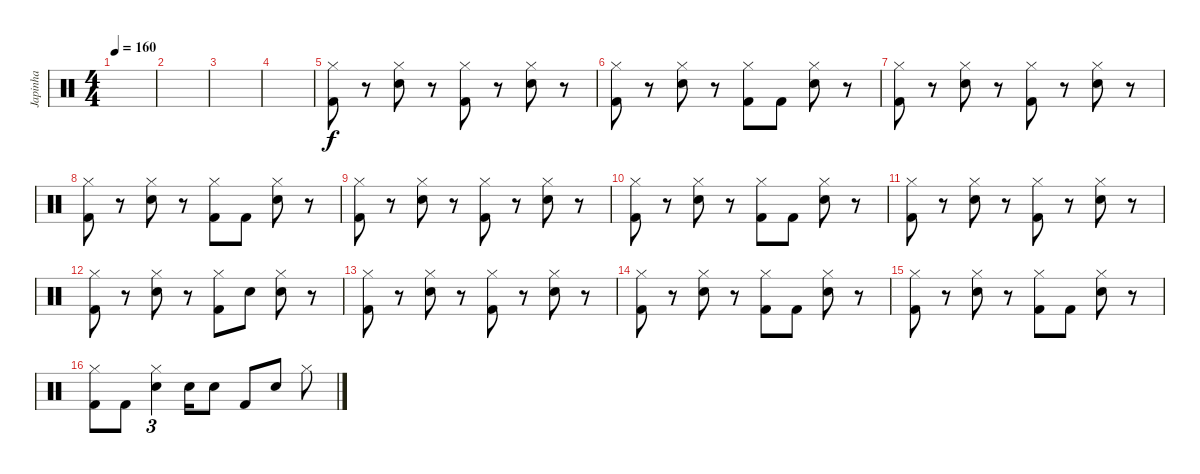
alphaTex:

\track ("Japinha" "Japinha") {instrument percussion}
\staff {score}
\articulation defaults
\ts (4 4)
\tempo 160
\clef neutral
\ks c
|
|
|
|
("Hi-Hat (closed)" "Kick (hit) 2").8 r.8 ("Hi-Hat (closed)" "Snare (hit) 2").8 r.8 ("Hi-Hat (closed)" "Kick (hit) 2").8 r.8 ("Hi-Hat (closed)" "Snare (hit) 2").8 r.8 |
("Hi-Hat (closed)" "Kick (hit) 2").8 r.8 ("Hi-Hat (closed)" "Snare (hit) 2").8 r.8 ("Hi-Hat (closed)" "Kick (hit) 2").8 "Kick (hit) 2".8 ("Hi-Hat (closed)" "Snare (hit) 2").8 r.8 |
("Hi-Hat (closed)" "Kick (hit) 2").8 r.8 ("Hi-Hat (closed)" "Snare (hit) 2").8 r.8 ("Hi-Hat (closed)" "Kick (hit) 2").8 r.8 ("Hi-Hat (closed)" "Snare (hit) 2").8 r.8 |
("Hi-Hat (closed)" "Kick (hit) 2").8 r.8 ("Hi-Hat (closed)" "Snare (hit) 2").8 r.8 ("Hi-Hat (closed)" "Kick (hit) 2").8 "Kick (hit) 2".8 ("Hi-Hat (closed)" "Snare (hit) 2").8 r.8 |
("Hi-Hat (closed)" "Kick (hit) 2").8 r.8 ("Hi-Hat (closed)" "Snare (hit) 2").8 r.8 ("Hi-Hat (closed)" "Kick (hit) 2").8 r.8 ("Hi-Hat (closed)" "Snare (hit) 2").8 r.8 |
("Hi-Hat (closed)" "Kick (hit) 2").8 r.8 ("Hi-Hat (closed)" "Snare (hit) 2").8 r.8 ("Hi-Hat (closed)" "Kick (hit) 2").8 "Kick (hit) 2".8 ("Hi-Hat (closed)" "Snare (hit) 2").8 r.8 |
("Hi-Hat (closed)" "Kick (hit) 2").8 r.8 ("Hi-Hat (closed)" "Snare (hit) 2").8 r.8 ("Hi-Hat (closed)" "Kick (hit) 2").8 r.8 ("Hi-Hat (closed)" "Snare (hit) 2").8 r.8 |
("Hi-Hat (closed)" "Kick (hit) 2").8 r.8 ("Hi-Hat (closed)" "Snare (hit) 2").8 r.8 ("Hi-Hat (closed)" "Kick (hit) 2").8 "Snare (hit) 2".8 ("Hi-Hat (closed)" "Snare (hit) 2").8 r.8 |
("Hi-Hat (closed)" "Kick (hit) 2").8 r.8 ("Hi-Hat (closed)" "Snare (hit) 2").8 r.8 ("Hi-Hat (closed)" "Kick (hit) 2").8 r.8 ("Hi-Hat (closed)" "Snare (hit) 2").8 r.8 |
("Hi-Hat (closed)" "Kick (hit) 2").8 r.8 ("Hi-Hat (closed)" "Snare (hit) 2").8 r.8 ("Hi-Hat (closed)" "Kick (hit) 2").8 "Kick (hit) 2".8 ("Hi-Hat (closed)" "Snare (hit) 2").8 r.8 |
("Hi-Hat (closed)" "Kick (hit) 2").8 r.8 ("Hi-Hat (closed)" "Snare (hit) 2").8 r.8 ("Hi-Hat (closed)" "Kick (hit) 2").8 "Kick (hit) 2".8 ("Hi-Hat (closed)" "Snare (hit) 2").8 r.8 |
("Hi-Hat (closed)" "Kick (hit) 2").8 "Kick (hit) 2".8 ("Hi-Hat (closed)" "Snare (hit) 2").4{tu (3 2)} "Snare (hit) 2".16 "Snare (hit) 2".8 "Kick (hit) 2".8 "Snare (hit) 2".8 "Hi-Hat (closed)".8
